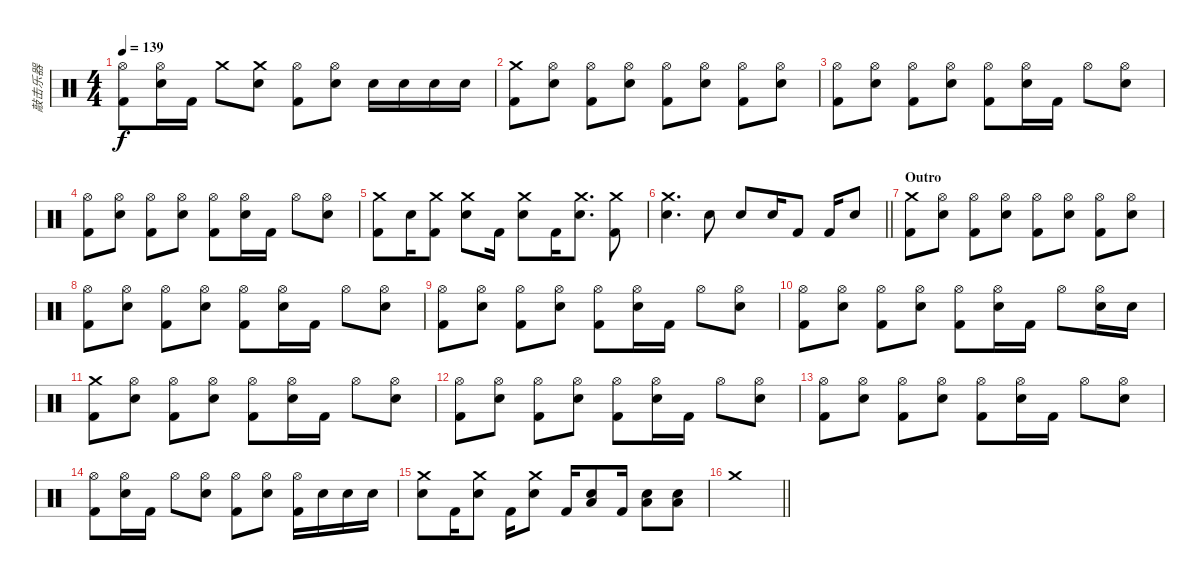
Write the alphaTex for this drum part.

\track ("敲击乐器" "敲击乐器") {instrument percussion}
\staff {score}
\articulation defaults
\ts (4 4)
\tempo 139
\clef neutral
\ks c
("Hi-Hat (open)" "Kick (hit) 2").8{dy f} ("Hi-Hat (open)" "Electric Snare (hit)").16 "Kick (hit) 2".16 "Crash medium (hit)".8 ("Crash medium (hit)" "Electric Snare (hit)").8 ("Hi-Hat (open)" "Kick (hit) 2").8 ("Hi-Hat (open)" "Electric Snare (hit)").8 "Electric Snare (hit)".16 "Electric Snare (hit)".16 "Electric Snare (hit)".16 "Electric Snare (hit)".16 |
("Crash medium (hit)" "Kick (hit) 2").8 ("Hi-Hat (open)" "Electric Snare (hit)").8 ("Hi-Hat (open)" "Kick (hit) 2").8 ("Hi-Hat (open)" "Electric Snare (hit)").8 ("Hi-Hat (open)" "Kick (hit) 2").8 ("Hi-Hat (open)" "Electric Snare (hit)").8 ("Hi-Hat (open)" "Kick (hit) 2").8 ("Hi-Hat (open)" "Electric Snare (hit)").8 |
("Hi-Hat (open)" "Kick (hit) 2").8 ("Hi-Hat (open)" "Electric Snare (hit)").8 ("Hi-Hat (open)" "Kick (hit) 2").8 ("Hi-Hat (open)" "Electric Snare (hit)").8 ("Hi-Hat (open)" "Kick (hit) 2").8 ("Hi-Hat (open)" "Electric Snare (hit)").16 "Kick (hit) 2".16 "Hi-Hat (open)".8 ("Hi-Hat (open)" "Electric Snare (hit)").8 |
("Hi-Hat (open)" "Kick (hit) 2").8 ("Hi-Hat (open)" "Electric Snare (hit)").8 ("Hi-Hat (open)" "Kick (hit) 2").8 ("Hi-Hat (open)" "Electric Snare (hit)").8 ("Hi-Hat (open)" "Kick (hit) 2").8 ("Hi-Hat (open)" "Electric Snare (hit)").16 "Kick (hit) 2".16 "Hi-Hat (open)".8 ("Hi-Hat (open)" "Electric Snare (hit)").8 |
("Crash medium (hit)" "Kick (hit) 2").8 "Electric Snare (hit)".16 ("Crash medium (hit)" "Kick (hit) 2").8 ("Crash medium (hit)" "Electric Snare (hit)").8 "Kick (hit) 2".16 ("Crash medium (hit)" "Electric Snare (hit)").8 "Kick (hit) 2".16 ("Crash medium (hit)" "Electric Snare (hit)").8{d} ("Crash medium (hit)" "Kick (hit) 2").8 |
\barLineRight lightlight
("Crash medium (hit)" "Electric Snare (hit)").4{d} "Electric Snare (hit)".8 "Electric Snare (hit)".8 "Electric Snare (hit)".16 "Kick (hit) 2".8 "Kick (hit) 2".16 "Electric Snare (hit)".8 |
\section ("" "Outro")
("Crash medium (hit)" "Kick (hit) 2").8 ("Hi-Hat (open)" "Electric Snare (hit)").8 ("Hi-Hat (open)" "Kick (hit) 2").8 ("Hi-Hat (open)" "Electric Snare (hit)").8 ("Hi-Hat (open)" "Kick (hit) 2").8 ("Hi-Hat (open)" "Electric Snare (hit)").8 ("Hi-Hat (open)" "Kick (hit) 2").8 ("Hi-Hat (open)" "Electric Snare (hit)").8 |
("Hi-Hat (open)" "Kick (hit) 2").8 ("Hi-Hat (open)" "Electric Snare (hit)").8 ("Hi-Hat (open)" "Kick (hit) 2").8 ("Hi-Hat (open)" "Electric Snare (hit)").8 ("Hi-Hat (open)" "Kick (hit) 2").8 ("Hi-Hat (open)" "Electric Snare (hit)").16 "Kick (hit) 2".16 "Hi-Hat (open)".8 ("Hi-Hat (open)" "Electric Snare (hit)").8 |
("Hi-Hat (open)" "Kick (hit) 2").8 ("Hi-Hat (open)" "Electric Snare (hit)").8 ("Hi-Hat (open)" "Kick (hit) 2").8 ("Hi-Hat (open)" "Electric Snare (hit)").8 ("Hi-Hat (open)" "Kick (hit) 2").8 ("Hi-Hat (open)" "Electric Snare (hit)").16 "Kick (hit) 2".16 "Hi-Hat (open)".8 ("Hi-Hat (open)" "Electric Snare (hit)").8 |
("Hi-Hat (open)" "Kick (hit) 2").8 ("Hi-Hat (open)" "Electric Snare (hit)").8 ("Hi-Hat (open)" "Kick (hit) 2").8 ("Hi-Hat (open)" "Electric Snare (hit)").8 ("Hi-Hat (open)" "Kick (hit) 2").8 ("Hi-Hat (open)" "Electric Snare (hit)").16 "Kick (hit) 2".16 "Hi-Hat (open)".8 ("Hi-Hat (open)" "Electric Snare (hit)").16 "Electric Snare (hit)".16 |
("Crash medium (hit)" "Kick (hit) 2").8 ("Hi-Hat (open)" "Electric Snare (hit)").8 ("Hi-Hat (open)" "Kick (hit) 2").8 ("Hi-Hat (open)" "Electric Snare (hit)").8 ("Hi-Hat (open)" "Kick (hit) 2").8 ("Hi-Hat (open)" "Electric Snare (hit)").16 "Kick (hit) 2".16 "Hi-Hat (open)".8 ("Hi-Hat (open)" "Electric Snare (hit)").8 |
("Hi-Hat (open)" "Kick (hit) 2").8 ("Hi-Hat (open)" "Electric Snare (hit)").8 ("Hi-Hat (open)" "Kick (hit) 2").8 ("Hi-Hat (open)" "Electric Snare (hit)").8 ("Hi-Hat (open)" "Kick (hit) 2").8 ("Hi-Hat (open)" "Electric Snare (hit)").16 "Kick (hit) 2".16 "Hi-Hat (open)".8 ("Hi-Hat (open)" "Electric Snare (hit)").8 |
("Hi-Hat (open)" "Kick (hit) 2").8 ("Hi-Hat (open)" "Electric Snare (hit)").8 ("Hi-Hat (open)" "Kick (hit) 2").8 ("Hi-Hat (open)" "Electric Snare (hit)").8 ("Hi-Hat (open)" "Kick (hit) 2").8 ("Hi-Hat (open)" "Electric Snare (hit)").16 "Kick (hit) 2".16 "Hi-Hat (open)".8 ("Hi-Hat (open)" "Electric Snare (hit)").8 |
("Hi-Hat (open)" "Kick (hit) 2").8 ("Hi-Hat (open)" "Electric Snare (hit)").16 "Kick (hit) 2".16 "Hi-Hat (open)".8 ("Hi-Hat (open)" "Electric Snare (hit)").8 ("Hi-Hat (open)" "Kick (hit) 2").8 ("Hi-Hat (open)" "Electric Snare (hit)").8 ("Hi-Hat (open)" "Kick (hit) 2").16 "Electric Snare (hit)".16 "Electric Snare (hit)".16 "Electric Snare (hit)".16 |
("Crash medium (hit)" "Electric Snare (hit)").8 "Kick (hit) 2".16 ("Crash medium (hit)" "Electric Snare (hit)").8 "Kick (hit) 2".16 ("Crash medium (hit)" "Electric Snare (hit)").8 "Kick (hit) 2".16 ("Low Tom (hit)" "Electric Snare (hit)").8{bd 480} "Kick (hit) 2".16 ("Low Tom (hit)" "Electric Snare (hit)").8{bd 480} ("Low Tom (hit)" "Electric Snare (hit)").8{bd 480} |
\barLineRight lightlight "Crash medium (hit)".1
